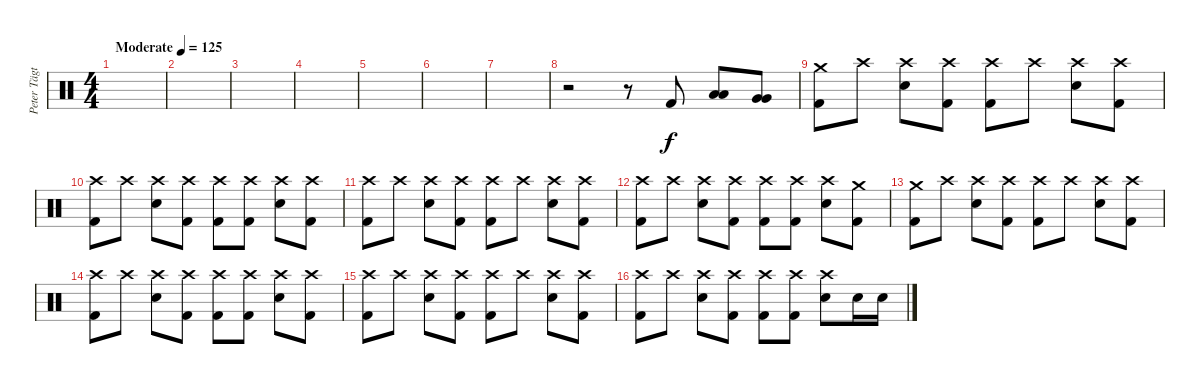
\track ("Peter Tägtgren" "Peter Tägt") {instrument percussion}
\staff {score}
\articulation defaults
\ts (4 4)
\tempo (125 "Moderate")
\clef neutral
\ks c
|
|
|
|
|
|
|
r.2 r.8 "Kick (hit) 2".8 ("Low Tom (hit)" "Low Tom (hit)").8{bd 60} ("Very Low Tom (hit)" "Very Low Tom (hit)").8{bd 60} |
("Crash medium (hit)" "Kick (hit) 2").8 "Crash high (hit)".8 ("Crash high (hit)" "Electric Snare (hit)").8 ("Crash high (hit)" "Kick (hit) 2").8 ("Crash high (hit)" "Kick (hit) 2").8 "Crash high (hit)".8 ("Crash high (hit)" "Electric Snare (hit)").8 ("Crash high (hit)" "Kick (hit) 2").8 |
("Crash high (hit)" "Kick (hit) 2").8 "Crash high (hit)".8 ("Crash high (hit)" "Electric Snare (hit)").8 ("Crash high (hit)" "Kick (hit) 2").8 ("Crash high (hit)" "Kick (hit) 2").8 ("Crash high (hit)" "Kick (hit) 2").8 ("Crash high (hit)" "Electric Snare (hit)").8 ("Crash high (hit)" "Kick (hit) 2").8 |
("Crash high (hit)" "Kick (hit) 2").8 "Crash high (hit)".8 ("Crash high (hit)" "Electric Snare (hit)").8 ("Crash high (hit)" "Kick (hit) 2").8 ("Crash high (hit)" "Kick (hit) 2").8 "Crash high (hit)".8 ("Crash high (hit)" "Electric Snare (hit)").8 ("Crash high (hit)" "Kick (hit) 2").8 |
("Crash high (hit)" "Kick (hit) 2").8 "Crash high (hit)".8 ("Crash high (hit)" "Electric Snare (hit)").8 ("Crash high (hit)" "Kick (hit) 2").8 ("Crash high (hit)" "Kick (hit) 2").8 ("Crash high (hit)" "Kick (hit) 2").8 ("Crash high (hit)" "Electric Snare (hit)").8 ("Crash medium (hit)" "Kick (hit) 2").8 |
("Crash medium (hit)" "Kick (hit) 2").8 "Crash high (hit)".8 ("Crash high (hit)" "Electric Snare (hit)").8 ("Crash high (hit)" "Kick (hit) 2").8 ("Crash high (hit)" "Kick (hit) 2").8 "Crash high (hit)".8 ("Crash high (hit)" "Electric Snare (hit)").8 ("Crash high (hit)" "Kick (hit) 2").8 |
("Crash high (hit)" "Kick (hit) 2").8 "Crash high (hit)".8 ("Crash high (hit)" "Electric Snare (hit)").8 ("Crash high (hit)" "Kick (hit) 2").8 ("Crash high (hit)" "Kick (hit) 2").8 ("Crash high (hit)" "Kick (hit) 2").8 ("Crash high (hit)" "Electric Snare (hit)").8 ("Crash high (hit)" "Kick (hit) 2").8 |
("Crash high (hit)" "Kick (hit) 2").8 "Crash high (hit)".8 ("Crash high (hit)" "Electric Snare (hit)").8 ("Crash high (hit)" "Kick (hit) 2").8 ("Crash high (hit)" "Kick (hit) 2").8 "Crash high (hit)".8 ("Crash high (hit)" "Electric Snare (hit)").8 ("Crash high (hit)" "Kick (hit) 2").8 |
("Crash high (hit)" "Kick (hit) 2").8 "Crash high (hit)".8 ("Crash high (hit)" "Electric Snare (hit)").8 ("Crash high (hit)" "Kick (hit) 2").8 ("Crash high (hit)" "Kick (hit) 2").8 ("Crash high (hit)" "Kick (hit) 2").8 ("Crash high (hit)" "Electric Snare (hit)").8 "Electric Snare (hit)".16 "Electric Snare (hit)".16
